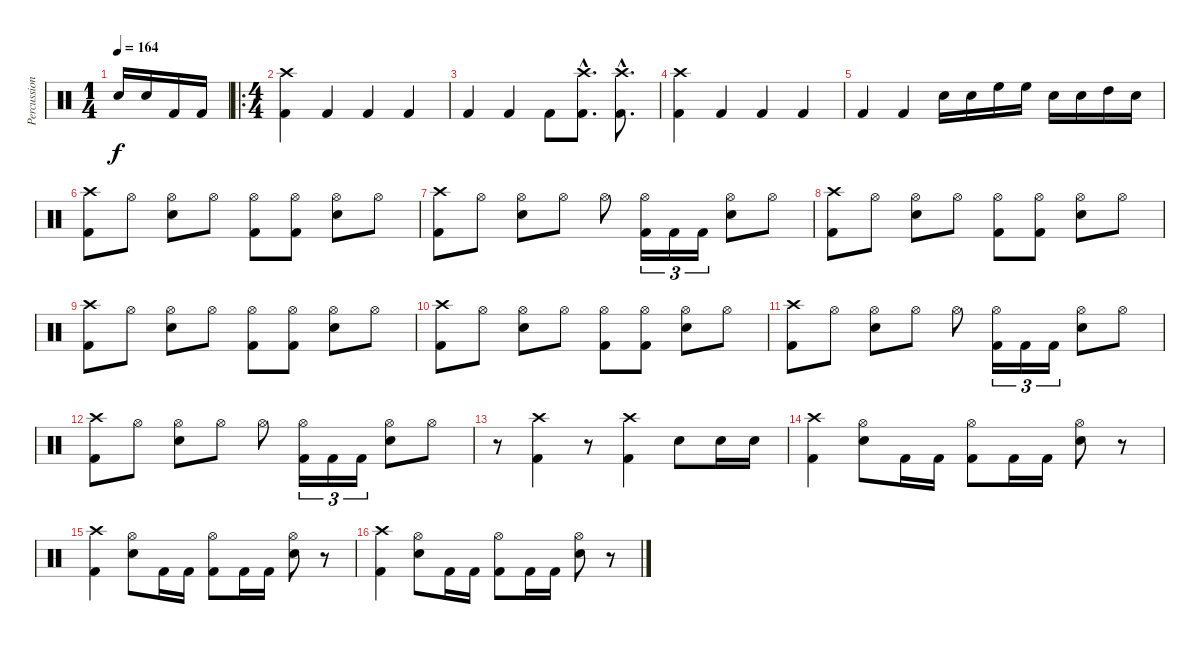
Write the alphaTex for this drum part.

\track ("Percussion" "Percussion") {instrument percussion}
\staff {score}
\articulation defaults
\ts (1 4)
\tempo 164
\clef neutral
\ks c "Snare (hit) 2".16{dy f} "Snare (hit) 2".16 "Kick (hit) 2".16 "Kick (hit) 2".16
|
\ro
\ts (4 4)
("Crash high (hit)" "Kick (hit) 2").4 "Kick (hit) 2".4 "Kick (hit) 2".4 "Kick (hit) 2".4 |
"Kick (hit) 2".4 "Kick (hit) 2".4 "Kick (hit) 2".8 ("Crash high (hit)"{hac} "Kick (hit) 2"{hac}).8{d} ("Crash high (hit)"{hac} "Kick (hit) 2"{hac}).8{d} |
("Crash high (hit)" "Kick (hit) 2").4 "Kick (hit) 2".4 "Kick (hit) 2".4 "Kick (hit) 2".4 |
"Kick (hit) 2".4 "Kick (hit) 2".4 "Snare (hit) 2".16 "Snare (hit) 2".16 "High Floor Tom (hit)".16 "High Floor Tom (hit)".16 "Snare (hit) 2".16 "Snare (hit) 2".16 "High Tom (hit)".16 "Snare (hit) 2".16 |
("Crash high (hit)" "Kick (hit) 2").8 "Hi-Hat (open)".8 ("Hi-Hat (open)" "Snare (hit) 2").8 "Hi-Hat (open)".8 ("Hi-Hat (open)" "Kick (hit) 2").8 ("Hi-Hat (open)" "Kick (hit) 2").8 ("Hi-Hat (open)" "Snare (hit) 2").8 "Hi-Hat (open)".8 |
("Crash high (hit)" "Kick (hit) 2").8 "Hi-Hat (open)".8 ("Hi-Hat (open)" "Snare (hit) 2").8 "Hi-Hat (open)".8 "Hi-Hat (open)".8 ("Hi-Hat (open)" "Kick (hit) 2").16{tu (3 2)} "Kick (hit) 2".16{tu (3 2)} "Kick (hit) 2".16{tu (3 2)} ("Hi-Hat (open)" "Snare (hit) 2").8 "Hi-Hat (open)".8 |
("Crash high (hit)" "Kick (hit) 2").8 "Hi-Hat (open)".8 ("Hi-Hat (open)" "Snare (hit) 2").8 "Hi-Hat (open)".8 ("Hi-Hat (open)" "Kick (hit) 2").8 ("Hi-Hat (open)" "Kick (hit) 2").8 ("Hi-Hat (open)" "Snare (hit) 2").8 "Hi-Hat (open)".8 |
("Crash high (hit)" "Kick (hit) 2").8 "Hi-Hat (open)".8 ("Hi-Hat (open)" "Snare (hit) 2").8 "Hi-Hat (open)".8 ("Hi-Hat (open)" "Kick (hit) 2").8 ("Hi-Hat (open)" "Kick (hit) 2").8 ("Hi-Hat (open)" "Snare (hit) 2").8 "Hi-Hat (open)".8 |
("Crash high (hit)" "Kick (hit) 2").8 "Hi-Hat (open)".8 ("Hi-Hat (open)" "Snare (hit) 2").8 "Hi-Hat (open)".8 ("Hi-Hat (open)" "Kick (hit) 2").8 ("Hi-Hat (open)" "Kick (hit) 2").8 ("Hi-Hat (open)" "Snare (hit) 2").8 "Hi-Hat (open)".8 |
("Crash high (hit)" "Kick (hit) 2").8 "Hi-Hat (open)".8 ("Hi-Hat (open)" "Snare (hit) 2").8 "Hi-Hat (open)".8 "Hi-Hat (open)".8 ("Hi-Hat (open)" "Kick (hit) 2").16{tu (3 2)} "Kick (hit) 2".16{tu (3 2)} "Kick (hit) 2".16{tu (3 2)} ("Hi-Hat (open)" "Snare (hit) 2").8 "Hi-Hat (open)".8 |
("Crash high (hit)" "Kick (hit) 2").8 "Hi-Hat (open)".8 ("Hi-Hat (open)" "Snare (hit) 2").8 "Hi-Hat (open)".8 "Hi-Hat (open)".8 ("Hi-Hat (open)" "Kick (hit) 2").16{tu (3 2)} "Kick (hit) 2".16{tu (3 2)} "Kick (hit) 2".16{tu (3 2)} ("Hi-Hat (open)" "Snare (hit) 2").8 "Hi-Hat (open)".8 |
r.8 ("Crash high (hit)" "Kick (hit) 2").4 r.8 ("Crash high (hit)" "Kick (hit) 2").4 "Snare (hit) 2".8 "Snare (hit) 2".16 "Snare (hit) 2".16 |
("Crash high (hit)" "Kick (hit) 2").4 ("Hi-Hat (open)" "Snare (hit) 2").8 "Kick (hit) 2".16 "Kick (hit) 2".16 ("Hi-Hat (open)" "Kick (hit) 2").8 "Kick (hit) 2".16 "Kick (hit) 2".16 ("Hi-Hat (open)" "Snare (hit) 2").8 r.8 |
("Crash high (hit)" "Kick (hit) 2").4 ("Hi-Hat (open)" "Snare (hit) 2").8 "Kick (hit) 2".16 "Kick (hit) 2".16 ("Hi-Hat (open)" "Kick (hit) 2").8 "Kick (hit) 2".16 "Kick (hit) 2".16 ("Hi-Hat (open)" "Snare (hit) 2").8 r.8 |
("Crash high (hit)" "Kick (hit) 2").4 ("Hi-Hat (open)" "Snare (hit) 2").8 "Kick (hit) 2".16 "Kick (hit) 2".16 ("Hi-Hat (open)" "Kick (hit) 2").8 "Kick (hit) 2".16 "Kick (hit) 2".16 ("Hi-Hat (open)" "Snare (hit) 2").8 r.8
